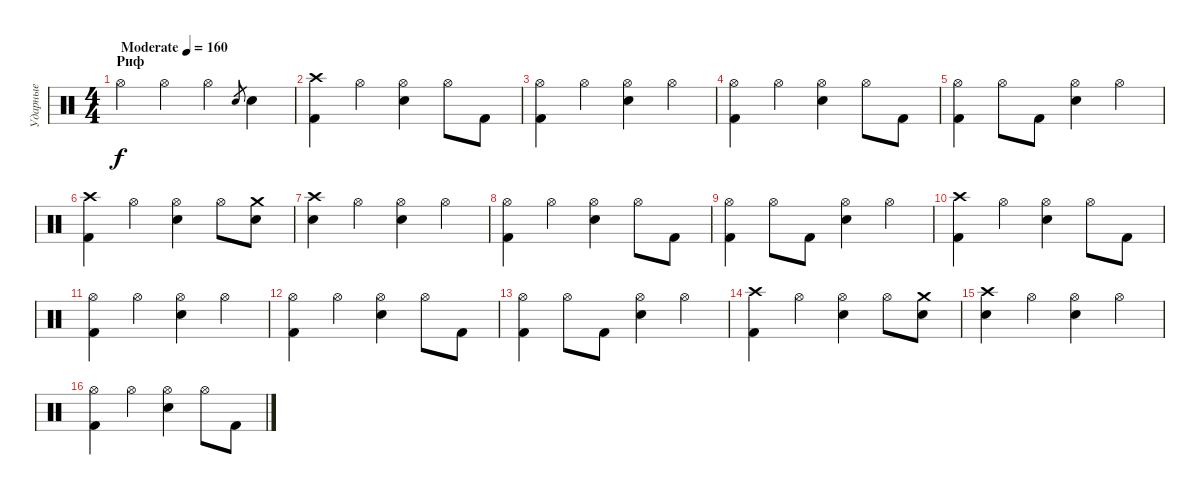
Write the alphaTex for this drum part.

\track ("Ударные" "Ударные") {instrument percussion}
\staff {score}
\articulation defaults
\ts (4 4)
\section ("" "Риф")
\tempo (160 "Moderate")
\clef neutral
\ks c "Hi-Hat (open)".4{dy f} "Hi-Hat (open)".4 "Hi-Hat (open)".4 "Snare (hit) 2".8{gr} "Snare (hit) 2".4
|
("Kick (hit) 2" "Crash high (hit)").4 "Hi-Hat (open)".4 ("Snare (hit) 2" "Hi-Hat (open)").4 "Hi-Hat (open)".8 "Kick (hit) 2".8 |
("Kick (hit) 2" "Hi-Hat (open)").4 "Hi-Hat (open)".4 ("Snare (hit) 2" "Hi-Hat (open)").4 "Hi-Hat (open)".4 |
("Kick (hit) 2" "Hi-Hat (open)").4 "Hi-Hat (open)".4 ("Snare (hit) 2" "Hi-Hat (open)").4 "Hi-Hat (open)".8 "Kick (hit) 2".8 |
("Kick (hit) 2" "Hi-Hat (open)").4 "Hi-Hat (open)".8 "Kick (hit) 2".8 ("Snare (hit) 2" "Hi-Hat (open)").4 "Hi-Hat (open)".4 |
("Crash high (hit)" "Kick (hit) 2").4 "Hi-Hat (open)".4 ("Snare (hit) 2" "Hi-Hat (open)").4 "Hi-Hat (open)".8 ("Crash medium (hit)" "Snare (hit) 2").8 |
("Crash high (hit)" "Snare (hit) 2").4 "Hi-Hat (open)".4 ("Snare (hit) 2" "Hi-Hat (open)").4 "Hi-Hat (open)".4 |
("Hi-Hat (open)" "Kick (hit) 2").4 "Hi-Hat (open)".4 ("Snare (hit) 2" "Hi-Hat (open)").4 "Hi-Hat (open)".8 "Kick (hit) 2".8 |
("Kick (hit) 2" "Hi-Hat (open)").4 "Hi-Hat (open)".8 "Kick (hit) 2".8 ("Snare (hit) 2" "Hi-Hat (open)").4 "Hi-Hat (open)".4 |
("Kick (hit) 2" "Crash high (hit)").4 "Hi-Hat (open)".4 ("Snare (hit) 2" "Hi-Hat (open)").4 "Hi-Hat (open)".8 "Kick (hit) 2".8 |
("Kick (hit) 2" "Hi-Hat (open)").4 "Hi-Hat (open)".4 ("Snare (hit) 2" "Hi-Hat (open)").4 "Hi-Hat (open)".4 |
("Kick (hit) 2" "Hi-Hat (open)").4 "Hi-Hat (open)".4 ("Snare (hit) 2" "Hi-Hat (open)").4 "Hi-Hat (open)".8 "Kick (hit) 2".8 |
("Kick (hit) 2" "Hi-Hat (open)").4 "Hi-Hat (open)".8 "Kick (hit) 2".8 ("Snare (hit) 2" "Hi-Hat (open)").4 "Hi-Hat (open)".4 |
("Crash high (hit)" "Kick (hit) 2").4 "Hi-Hat (open)".4 ("Snare (hit) 2" "Hi-Hat (open)").4 "Hi-Hat (open)".8 ("Crash medium (hit)" "Snare (hit) 2").8 |
("Crash high (hit)" "Snare (hit) 2").4 "Hi-Hat (open)".4 ("Snare (hit) 2" "Hi-Hat (open)").4 "Hi-Hat (open)".4 |
("Hi-Hat (open)" "Kick (hit) 2").4 "Hi-Hat (open)".4 ("Snare (hit) 2" "Hi-Hat (open)").4 "Hi-Hat (open)".8 "Kick (hit) 2".8
